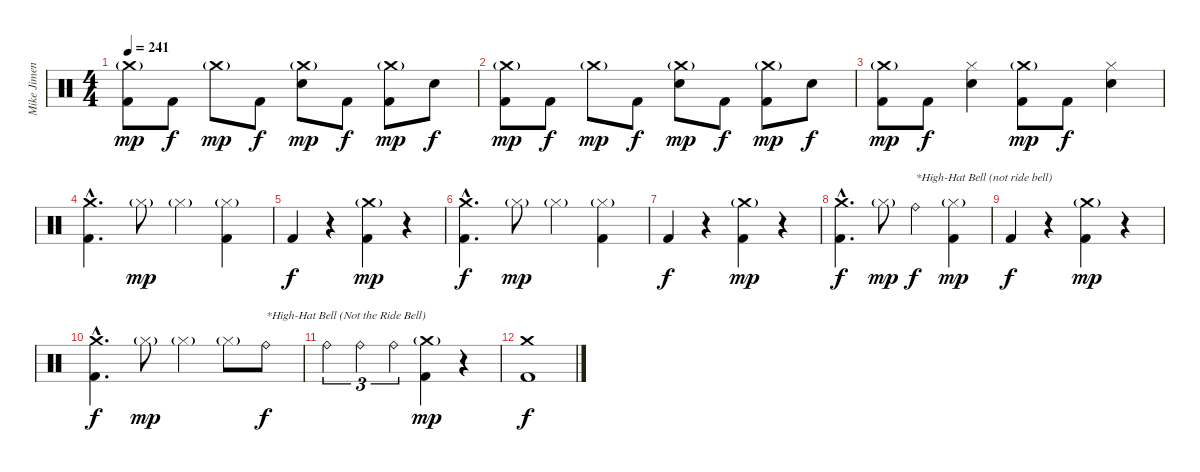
\track ("Mike Jimenez" "Mike Jimen") {instrument percussion}
\staff {score}
\articulation defaults
\ts (4 4)
\tempo 241
\clef neutral
\ks c
("Crash medium (hit)"{g} "Kick (hit) 2").8{dy mp} "Kick (hit) 2".8{dy f} "Crash medium (hit)"{g}.8{dy mp} "Kick (hit) 2".8{dy f} ("Crash medium (hit)"{g} "Electric Snare (hit)").8{dy mp} "Kick (hit) 2".8{dy f} ("Crash medium (hit)"{g} "Kick (hit) 2").8{dy mp} "Electric Snare (hit)".8{dy f} |
("Crash medium (hit)"{g} "Kick (hit) 2").8{dy mp} "Kick (hit) 2".8{dy f} "Crash medium (hit)"{g}.8{dy mp} "Kick (hit) 2".8{dy f} ("Crash medium (hit)"{g} "Electric Snare (hit)").8{dy mp} "Kick (hit) 2".8{dy f} ("Crash medium (hit)"{g} "Kick (hit) 2").8{dy mp} "Electric Snare (hit)".8{dy f} |
("Crash medium (hit)"{g} "Kick (hit) 2").8{dy mp} "Kick (hit) 2".8{dy f} ("Hi-Hat (closed)" "Electric Snare (hit)").4 ("Crash medium (hit)"{g} "Kick (hit) 2").8{dy mp} "Kick (hit) 2".8{dy f} ("Hi-Hat (closed)" "Electric Snare (hit)").4 |
("Crash medium (hit)"{hac} "Kick (hit) 2"{hac}).4{d} "Hi-Hat (closed)"{g}.8{dy mp} "Hi-Hat (closed)"{g}.4 ("Hi-Hat (closed)"{g} "Kick (hit) 2").4 |
"Kick (hit) 2".4{dy f} r.4 ("Crash medium (hit)"{g} "Kick (hit) 2").4{dy mp} r.4 |
("Crash medium (hit)"{hac} "Kick (hit) 2"{hac}).4{d dy f} "Hi-Hat (closed)"{g}.8{dy mp} "Hi-Hat (closed)"{g}.4 ("Hi-Hat (closed)"{g} "Kick (hit) 2").4 |
"Kick (hit) 2".4{dy f} r.4 ("Crash medium (hit)"{g} "Kick (hit) 2").4{dy mp} r.4 |
("Crash medium (hit)"{hac} "Kick (hit) 2"{hac}).4{d dy f} "Hi-Hat (closed)"{g}.8{dy mp} "Ride (bell)".4{txt "*High-Hat Bell (not ride bell)" dy f} ("Hi-Hat (closed)"{g} "Kick (hit) 2").4{dy mp} |
"Kick (hit) 2".4{dy f} r.4 ("Crash medium (hit)"{g} "Kick (hit) 2").4{dy mp} r.4 |
("Crash medium (hit)"{hac} "Kick (hit) 2"{hac}).4{d dy f} "Hi-Hat (closed)"{g}.8{dy mp} "Hi-Hat (closed)"{g}.4 "Hi-Hat (closed)"{g}.8 "Ride (bell)".8{txt "*High-Hat Bell (Not the Ride Bell)" dy f} |
"Ride (bell)".4{tu (3 2)} "Ride (bell)".4{tu (3 2)} "Ride (bell)".4{tu (3 2)} ("Crash medium (hit)"{g} "Kick (hit) 2").4{dy mp} r.4 |
("Crash medium (hit)" "Kick (hit) 2").1{dy f}
